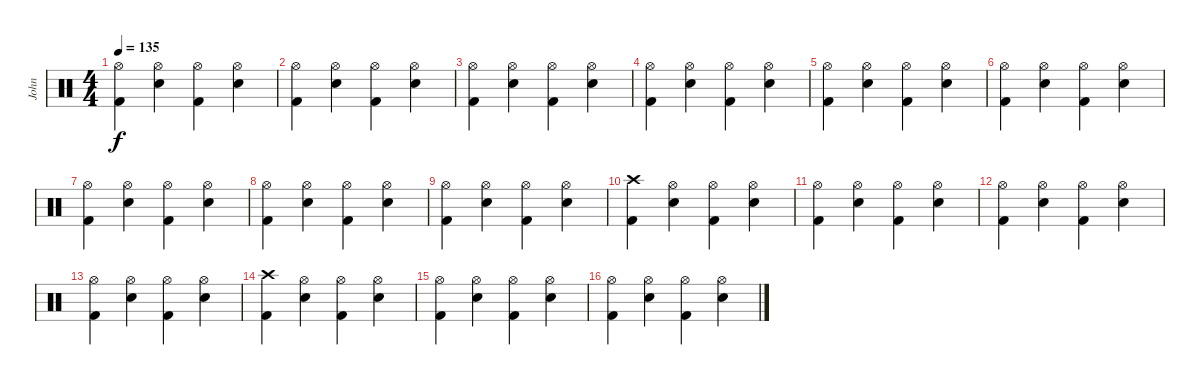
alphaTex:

\track ("John" "John") {instrument percussion}
\staff {score}
\articulation defaults
\ts (4 4)
\tempo 135
\clef neutral
\ks c
("Hi-Hat (open)" "Kick (hit) 2").4{dy f} ("Hi-Hat (open)" "Electric Snare (hit)").4 ("Hi-Hat (open)" "Kick (hit) 2").4 ("Hi-Hat (open)" "Electric Snare (hit)").4 |
("Hi-Hat (open)" "Kick (hit) 2").4 ("Hi-Hat (open)" "Electric Snare (hit)").4 ("Hi-Hat (open)" "Kick (hit) 2").4 ("Hi-Hat (open)" "Electric Snare (hit)").4 |
("Hi-Hat (open)" "Kick (hit) 2").4 ("Hi-Hat (open)" "Electric Snare (hit)").4 ("Hi-Hat (open)" "Kick (hit) 2").4 ("Hi-Hat (open)" "Electric Snare (hit)").4 |
("Hi-Hat (open)" "Kick (hit) 2").4 ("Hi-Hat (open)" "Electric Snare (hit)").4 ("Hi-Hat (open)" "Kick (hit) 2").4 ("Hi-Hat (open)" "Electric Snare (hit)").4 |
("Hi-Hat (open)" "Kick (hit) 2").4 ("Hi-Hat (open)" "Electric Snare (hit)").4 ("Hi-Hat (open)" "Kick (hit) 2").4 ("Hi-Hat (open)" "Electric Snare (hit)").4 |
("Hi-Hat (open)" "Kick (hit) 2").4 ("Hi-Hat (open)" "Electric Snare (hit)").4 ("Hi-Hat (open)" "Kick (hit) 2").4 ("Hi-Hat (open)" "Electric Snare (hit)").4 |
("Hi-Hat (open)" "Kick (hit) 2").4 ("Hi-Hat (open)" "Electric Snare (hit)").4 ("Hi-Hat (open)" "Kick (hit) 2").4 ("Hi-Hat (open)" "Electric Snare (hit)").4 |
("Hi-Hat (open)" "Kick (hit) 2").4 ("Hi-Hat (open)" "Electric Snare (hit)").4 ("Hi-Hat (open)" "Kick (hit) 2").4 ("Hi-Hat (open)" "Electric Snare (hit)").4 |
("Hi-Hat (open)" "Kick (hit) 2").4 ("Hi-Hat (open)" "Electric Snare (hit)").4 ("Hi-Hat (open)" "Kick (hit) 2").4 ("Hi-Hat (open)" "Electric Snare (hit)").4 |
("Crash high (hit)" "Kick (hit) 2").4 ("Hi-Hat (open)" "Electric Snare (hit)").4 ("Hi-Hat (open)" "Kick (hit) 2").4 ("Hi-Hat (open)" "Electric Snare (hit)").4 |
("Hi-Hat (open)" "Kick (hit) 2").4 ("Hi-Hat (open)" "Electric Snare (hit)").4 ("Hi-Hat (open)" "Kick (hit) 2").4 ("Hi-Hat (open)" "Electric Snare (hit)").4 |
("Hi-Hat (open)" "Kick (hit) 2").4 ("Hi-Hat (open)" "Electric Snare (hit)").4 ("Hi-Hat (open)" "Kick (hit) 2").4 ("Hi-Hat (open)" "Electric Snare (hit)").4 |
("Hi-Hat (open)" "Kick (hit) 2").4 ("Hi-Hat (open)" "Electric Snare (hit)").4 ("Hi-Hat (open)" "Kick (hit) 2").4 ("Hi-Hat (open)" "Electric Snare (hit)").4 |
("Crash high (hit)" "Kick (hit) 2").4 ("Hi-Hat (open)" "Electric Snare (hit)").4 ("Hi-Hat (open)" "Kick (hit) 2").4 ("Hi-Hat (open)" "Electric Snare (hit)").4 |
("Hi-Hat (open)" "Kick (hit) 2").4 ("Hi-Hat (open)" "Electric Snare (hit)").4 ("Hi-Hat (open)" "Kick (hit) 2").4 ("Hi-Hat (open)" "Electric Snare (hit)").4 |
("Hi-Hat (open)" "Kick (hit) 2").4 ("Hi-Hat (open)" "Electric Snare (hit)").4 ("Hi-Hat (open)" "Kick (hit) 2").4 ("Hi-Hat (open)" "Electric Snare (hit)").4
